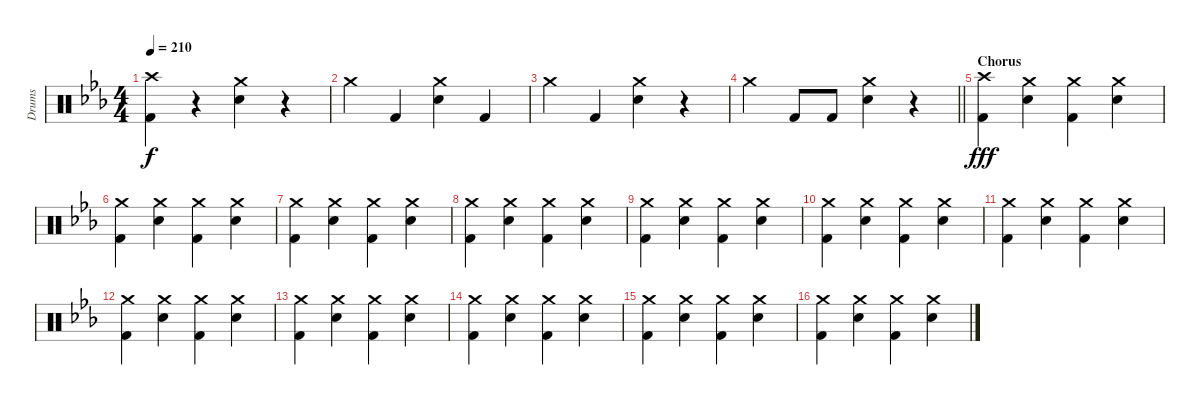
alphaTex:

\track ("Drums" "Drums") {instrument percussion}
\staff {score}
\articulation defaults
\ts (4 4)
\tempo 210
\clef neutral
\ks cminor
("Crash high (hit)" "Kick (hit) 2").4{dy f} r.4 ("Crash medium (hit)" "Electric Snare (hit)").4 r.4 |
"Crash medium (hit)".4 "Kick (hit) 2".4 ("Crash medium (hit)" "Electric Snare (hit)").4 "Kick (hit) 2".4 |
"Crash medium (hit)".4 "Kick (hit) 2".4 ("Crash medium (hit)" "Electric Snare (hit)").4 r.4 |
\barLineRight lightlight "Crash medium (hit)".4 "Kick (hit) 2".8 "Kick (hit) 2".8
("Crash medium (hit)" "Electric Snare (hit)").4 r.4 |
\section ("" "Chorus")
("Crash high (hit)" "Kick (hit) 2").4{dy fff} ("Crash medium (hit)" "Electric Snare (hit)").4 ("Crash medium (hit)" "Kick (hit) 2").4 ("Crash medium (hit)" "Electric Snare (hit)").4 |
("Crash medium (hit)" "Kick (hit) 2").4 ("Crash medium (hit)" "Electric Snare (hit)").4 ("Crash medium (hit)" "Kick (hit) 2").4 ("Crash medium (hit)" "Electric Snare (hit)").4 |
("Crash medium (hit)" "Kick (hit) 2").4 ("Crash medium (hit)" "Electric Snare (hit)").4 ("Crash medium (hit)" "Kick (hit) 2").4 ("Crash medium (hit)" "Electric Snare (hit)").4 |
("Crash medium (hit)" "Kick (hit) 2").4 ("Crash medium (hit)" "Electric Snare (hit)").4 ("Crash medium (hit)" "Kick (hit) 2").4 ("Crash medium (hit)" "Electric Snare (hit)").4 |
("Crash medium (hit)" "Kick (hit) 2").4 ("Crash medium (hit)" "Electric Snare (hit)").4 ("Crash medium (hit)" "Kick (hit) 2").4 ("Crash medium (hit)" "Electric Snare (hit)").4 |
("Crash medium (hit)" "Kick (hit) 2").4 ("Crash medium (hit)" "Electric Snare (hit)").4 ("Crash medium (hit)" "Kick (hit) 2").4 ("Crash medium (hit)" "Electric Snare (hit)").4 |
("Crash medium (hit)" "Kick (hit) 2").4 ("Crash medium (hit)" "Electric Snare (hit)").4 ("Crash medium (hit)" "Kick (hit) 2").4 ("Crash medium (hit)" "Electric Snare (hit)").4 |
("Crash medium (hit)" "Kick (hit) 2").4 ("Crash medium (hit)" "Electric Snare (hit)").4 ("Crash medium (hit)" "Kick (hit) 2").4 ("Crash medium (hit)" "Electric Snare (hit)").4 |
("Crash medium (hit)" "Kick (hit) 2").4 ("Crash medium (hit)" "Electric Snare (hit)").4 ("Crash medium (hit)" "Kick (hit) 2").4 ("Crash medium (hit)" "Electric Snare (hit)").4 |
("Crash medium (hit)" "Kick (hit) 2").4 ("Crash medium (hit)" "Electric Snare (hit)").4 ("Crash medium (hit)" "Kick (hit) 2").4 ("Crash medium (hit)" "Electric Snare (hit)").4 |
("Crash medium (hit)" "Kick (hit) 2").4 ("Crash medium (hit)" "Electric Snare (hit)").4 ("Crash medium (hit)" "Kick (hit) 2").4 ("Crash medium (hit)" "Electric Snare (hit)").4 |
("Crash medium (hit)" "Kick (hit) 2").4 ("Crash medium (hit)" "Electric Snare (hit)").4 ("Crash medium (hit)" "Kick (hit) 2").4 ("Crash medium (hit)" "Electric Snare (hit)").4
